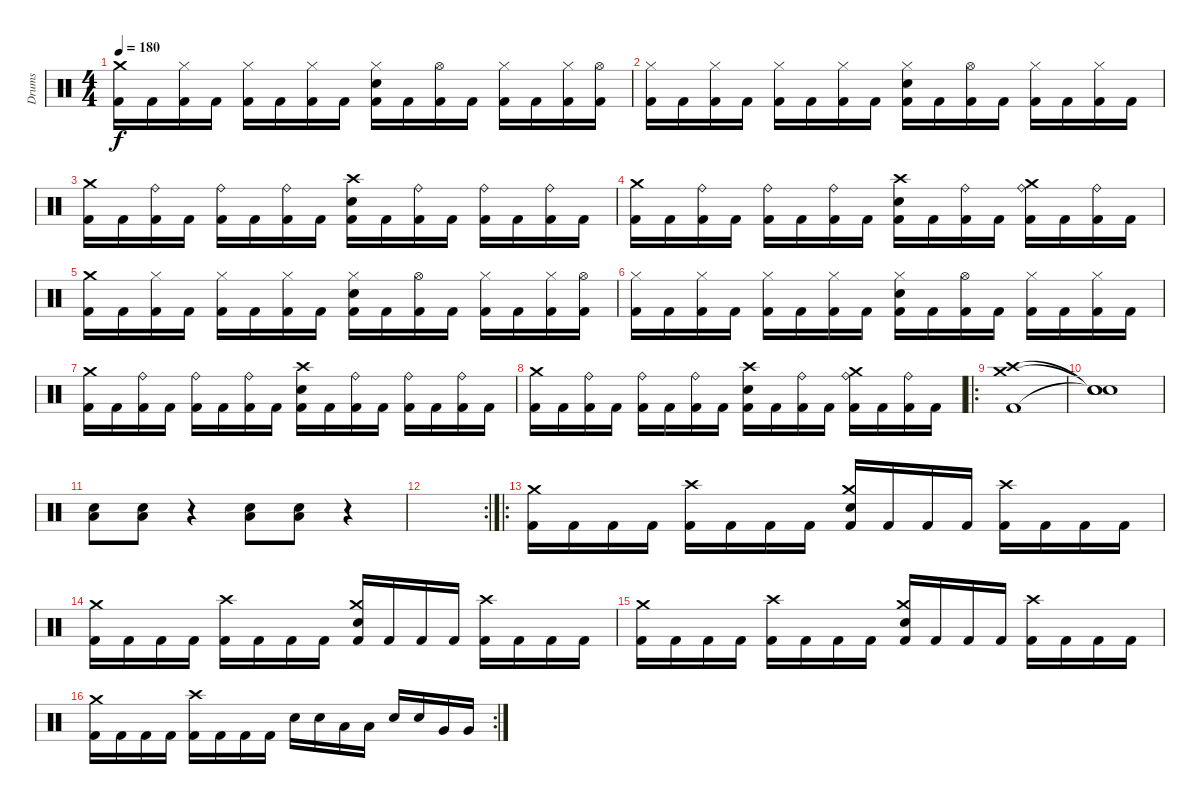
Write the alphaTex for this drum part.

\track ("Drums" "Drums") {instrument percussion}
\staff {score}
\articulation defaults
\ts (4 4)
\tempo 180
\clef neutral
\ks c
("Kick (hit) 2" "Crash medium (hit)").16{dy f} "Kick (hit) 2".16 ("Kick (hit) 2" "Hi-Hat (closed)").16 "Kick (hit) 2".16 ("Kick (hit) 2" "Hi-Hat (closed)").16 "Kick (hit) 2".16 ("Kick (hit) 2" "Hi-Hat (closed)").16 "Kick (hit) 2".16 ("Kick (hit) 2" "Electric Snare (hit)" "Hi-Hat (closed)").16 "Kick (hit) 2".16 ("Kick (hit) 2" "Hi-Hat (open)").16 "Kick (hit) 2".16 ("Kick (hit) 2" "Hi-Hat (closed)").16 "Kick (hit) 2".16 ("Kick (hit) 2" "Hi-Hat (closed)").16 ("Kick (hit) 2" "Hi-Hat (open)").16 |
("Kick (hit) 2" "Hi-Hat (closed)").16 "Kick (hit) 2".16 ("Kick (hit) 2" "Hi-Hat (closed)").16 "Kick (hit) 2".16 ("Kick (hit) 2" "Hi-Hat (closed)").16 "Kick (hit) 2".16 ("Kick (hit) 2" "Hi-Hat (closed)").16 "Kick (hit) 2".16 ("Kick (hit) 2" "Electric Snare (hit)" "Hi-Hat (closed)").16 "Kick (hit) 2".16 ("Kick (hit) 2" "Hi-Hat (open)").16 "Kick (hit) 2".16 ("Kick (hit) 2" "Hi-Hat (closed)").16 "Kick (hit) 2".16 ("Kick (hit) 2" "Hi-Hat (closed)").16 "Kick (hit) 2".16 |
("Kick (hit) 2" "Crash medium (hit)").16 "Kick (hit) 2".16 ("Kick (hit) 2" "Ride (bell)").16 "Kick (hit) 2".16 ("Kick (hit) 2" "Ride (bell)").16 "Kick (hit) 2".16 ("Kick (hit) 2" "Ride (bell)").16 "Kick (hit) 2".16 ("Kick (hit) 2" "Electric Snare (hit)" "Crash high (hit)").16 "Kick (hit) 2".16 ("Kick (hit) 2" "Ride (bell)").16 "Kick (hit) 2".16 ("Kick (hit) 2" "Ride (bell)").16 "Kick (hit) 2".16 ("Kick (hit) 2" "Ride (bell)").16 "Kick (hit) 2".16 |
("Kick (hit) 2" "Crash medium (hit)").16 "Kick (hit) 2".16 ("Kick (hit) 2" "Ride (bell)").16 "Kick (hit) 2".16 ("Kick (hit) 2" "Ride (bell)").16 "Kick (hit) 2".16 ("Kick (hit) 2" "Ride (bell)").16 "Kick (hit) 2".16 ("Kick (hit) 2" "Electric Snare (hit)" "Crash high (hit)").16 "Kick (hit) 2".16 ("Kick (hit) 2" "Ride (bell)").16 "Kick (hit) 2".16 ("Kick (hit) 2" "Ride (bell)" "Crash medium (hit)").16 "Kick (hit) 2".16 ("Kick (hit) 2" "Ride (bell)").16 "Kick (hit) 2".16 |
("Kick (hit) 2" "Crash medium (hit)").16 "Kick (hit) 2".16 ("Kick (hit) 2" "Hi-Hat (closed)").16 "Kick (hit) 2".16 ("Kick (hit) 2" "Hi-Hat (closed)").16 "Kick (hit) 2".16 ("Kick (hit) 2" "Hi-Hat (closed)").16 "Kick (hit) 2".16 ("Kick (hit) 2" "Electric Snare (hit)" "Hi-Hat (closed)").16 "Kick (hit) 2".16 ("Kick (hit) 2" "Hi-Hat (open)").16 "Kick (hit) 2".16 ("Kick (hit) 2" "Hi-Hat (closed)").16 "Kick (hit) 2".16 ("Kick (hit) 2" "Hi-Hat (closed)").16 ("Kick (hit) 2" "Hi-Hat (open)").16 |
("Kick (hit) 2" "Hi-Hat (closed)").16 "Kick (hit) 2".16 ("Kick (hit) 2" "Hi-Hat (closed)").16 "Kick (hit) 2".16 ("Kick (hit) 2" "Hi-Hat (closed)").16 "Kick (hit) 2".16 ("Kick (hit) 2" "Hi-Hat (closed)").16 "Kick (hit) 2".16 ("Kick (hit) 2" "Electric Snare (hit)" "Hi-Hat (closed)").16 "Kick (hit) 2".16 ("Kick (hit) 2" "Hi-Hat (open)").16 "Kick (hit) 2".16 ("Kick (hit) 2" "Hi-Hat (closed)").16 "Kick (hit) 2".16 ("Kick (hit) 2" "Hi-Hat (closed)").16 "Kick (hit) 2".16 |
("Kick (hit) 2" "Crash medium (hit)").16 "Kick (hit) 2".16 ("Kick (hit) 2" "Ride (bell)").16 "Kick (hit) 2".16 ("Kick (hit) 2" "Ride (bell)").16 "Kick (hit) 2".16 ("Kick (hit) 2" "Ride (bell)").16 "Kick (hit) 2".16 ("Kick (hit) 2" "Electric Snare (hit)" "Crash high (hit)").16 "Kick (hit) 2".16 ("Kick (hit) 2" "Ride (bell)").16 "Kick (hit) 2".16 ("Kick (hit) 2" "Ride (bell)").16 "Kick (hit) 2".16 ("Kick (hit) 2" "Ride (bell)").16 "Kick (hit) 2".16 |
("Kick (hit) 2" "Crash medium (hit)").16 "Kick (hit) 2".16 ("Kick (hit) 2" "Ride (bell)").16 "Kick (hit) 2".16 ("Kick (hit) 2" "Ride (bell)").16 "Kick (hit) 2".16 ("Kick (hit) 2" "Ride (bell)").16 "Kick (hit) 2".16 ("Kick (hit) 2" "Electric Snare (hit)" "Crash high (hit)").16 "Kick (hit) 2".16 ("Kick (hit) 2" "Ride (bell)").16 "Kick (hit) 2".16 ("Kick (hit) 2" "Ride (bell)" "Crash medium (hit)").16 "Kick (hit) 2".16 ("Kick (hit) 2" "Ride (bell)").16 "Kick (hit) 2".16 |
\ro
("Kick (hit) 2" "Crash high (hit)" "Crash medium (hit)").1 |
("Snare (hit)"{t} "Snare (hit)"{t} "Snare (hit)"{t}).1 |
("Electric Snare (hit)" "Low Tom (hit)").8 ("Electric Snare (hit)" "Low Tom (hit)").8 r.4 ("Electric Snare (hit)" "Low Tom (hit)").8 ("Electric Snare (hit)" "Low Tom (hit)").8 r.4 |
\rc 2
|
\ro
("Kick (hit) 2" "Crash medium (hit)").16 "Kick (hit) 2".16 "Kick (hit) 2".16 "Kick (hit) 2".16 ("Kick (hit) 2" "Crash high (hit)").16 "Kick (hit) 2".16 "Kick (hit) 2".16 "Kick (hit) 2".16 ("Kick (hit) 2" "Electric Snare (hit)" "Crash medium (hit)").16 "Kick (hit) 2".16 "Kick (hit) 2".16 "Kick (hit) 2".16 ("Kick (hit) 2" "Crash high (hit)").16 "Kick (hit) 2".16 "Kick (hit) 2".16 "Kick (hit) 2".16 |
("Kick (hit) 2" "Crash medium (hit)").16 "Kick (hit) 2".16 "Kick (hit) 2".16 "Kick (hit) 2".16 ("Kick (hit) 2" "Crash high (hit)").16 "Kick (hit) 2".16 "Kick (hit) 2".16 "Kick (hit) 2".16 ("Kick (hit) 2" "Electric Snare (hit)" "Crash medium (hit)").16 "Kick (hit) 2".16 "Kick (hit) 2".16 "Kick (hit) 2".16 ("Kick (hit) 2" "Crash high (hit)").16 "Kick (hit) 2".16 "Kick (hit) 2".16 "Kick (hit) 2".16 |
("Kick (hit) 2" "Crash medium (hit)").16 "Kick (hit) 2".16 "Kick (hit) 2".16 "Kick (hit) 2".16 ("Kick (hit) 2" "Crash high (hit)").16 "Kick (hit) 2".16 "Kick (hit) 2".16 "Kick (hit) 2".16 ("Kick (hit) 2" "Electric Snare (hit)" "Crash medium (hit)").16 "Kick (hit) 2".16 "Kick (hit) 2".16 "Kick (hit) 2".16 ("Kick (hit) 2" "Crash high (hit)").16 "Kick (hit) 2".16 "Kick (hit) 2".16 "Kick (hit) 2".16 |
\rc 2
("Kick (hit) 2" "Crash medium (hit)").16 "Kick (hit) 2".16 "Kick (hit) 2".16 "Kick (hit) 2".16 ("Kick (hit) 2" "Crash high (hit)").16 "Kick (hit) 2".16 "Kick (hit) 2".16 "Kick (hit) 2".16 "Electric Snare (hit)".16 "Electric Snare (hit)".16 "Low Floor Tom (hit)".16 "Low Floor Tom (hit)".16 "Electric Snare (hit)".16 "Electric Snare (hit)".16 "Very Low Tom (hit)".16 "Very Low Tom (hit)".16
